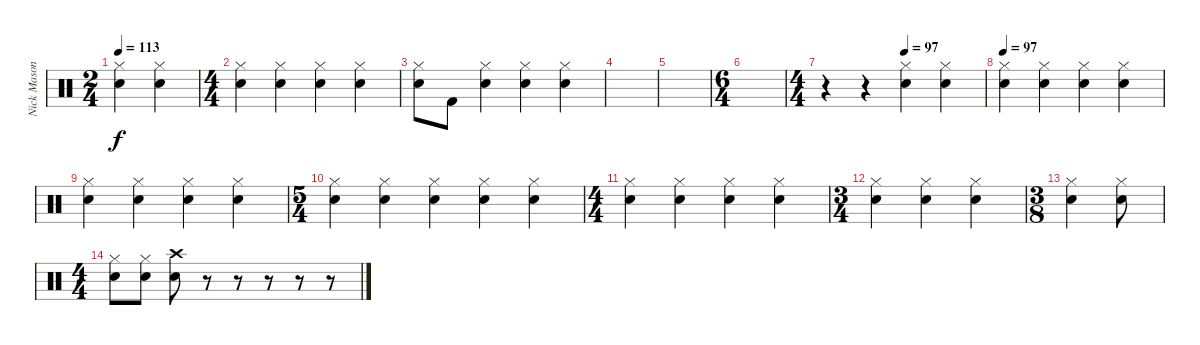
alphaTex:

\track ("Nick Mason- Drums" "Nick Mason") {instrument percussion}
\staff {score}
\articulation defaults
\ts (2 4)
\tempo 113
\clef neutral
\ks c
("Hi-Hat (closed)" "Snare (hit) 2").4{dy f} ("Hi-Hat (closed)" "Snare (hit) 2").4 |
\ts (4 4)
("Hi-Hat (closed)" "Snare (hit) 2").4 ("Hi-Hat (closed)" "Snare (hit) 2").4 ("Hi-Hat (closed)" "Snare (hit) 2").4 ("Hi-Hat (closed)" "Snare (hit) 2").4 |
("Hi-Hat (closed)" "Snare (hit) 2").8 "Kick (hit) 2".8 ("Hi-Hat (closed)" "Snare (hit) 2").4 ("Hi-Hat (closed)" "Snare (hit) 2").4 ("Hi-Hat (closed)" "Snare (hit) 2").4 |
|
|
\ts (6 4)
|
\ts (4 4)
\tempo (97 0.5)
r.4 r.4 ("Hi-Hat (closed)" "Snare (hit) 2").4 ("Hi-Hat (closed)" "Snare (hit) 2").4 |
\tempo 97
("Hi-Hat (closed)" "Snare (hit) 2").4 ("Hi-Hat (closed)" "Snare (hit) 2").4 ("Hi-Hat (closed)" "Snare (hit) 2").4 ("Hi-Hat (closed)" "Snare (hit) 2").4 |
("Hi-Hat (closed)" "Snare (hit) 2").4 ("Hi-Hat (closed)" "Snare (hit) 2").4 ("Hi-Hat (closed)" "Snare (hit) 2").4 ("Hi-Hat (closed)" "Snare (hit) 2").4 |
\ts (5 4)
("Hi-Hat (closed)" "Snare (hit) 2").4 ("Hi-Hat (closed)" "Snare (hit) 2").4 ("Hi-Hat (closed)" "Snare (hit) 2").4 ("Hi-Hat (closed)" "Snare (hit) 2").4 ("Hi-Hat (closed)" "Snare (hit) 2").4 |
\ts (4 4)
("Hi-Hat (closed)" "Snare (hit) 2").4 ("Hi-Hat (closed)" "Snare (hit) 2").4 ("Hi-Hat (closed)" "Snare (hit) 2").4 ("Hi-Hat (closed)" "Snare (hit) 2").4 |
\ts (3 4)
("Hi-Hat (closed)" "Snare (hit) 2").4 ("Hi-Hat (closed)" "Snare (hit) 2").4 ("Hi-Hat (closed)" "Snare (hit) 2").4 |
\ts (3 8)
("Hi-Hat (closed)" "Snare (hit) 2").4 ("Hi-Hat (closed)" "Snare (hit) 2").8 |
\ts (4 4)
("Hi-Hat (closed)" "Snare (hit) 2").8 ("Hi-Hat (closed)" "Snare (hit) 2").8 ("Crash high (hit)" "Snare (hit) 2").8 r.8 r.8 r.8 r.8 r.8
